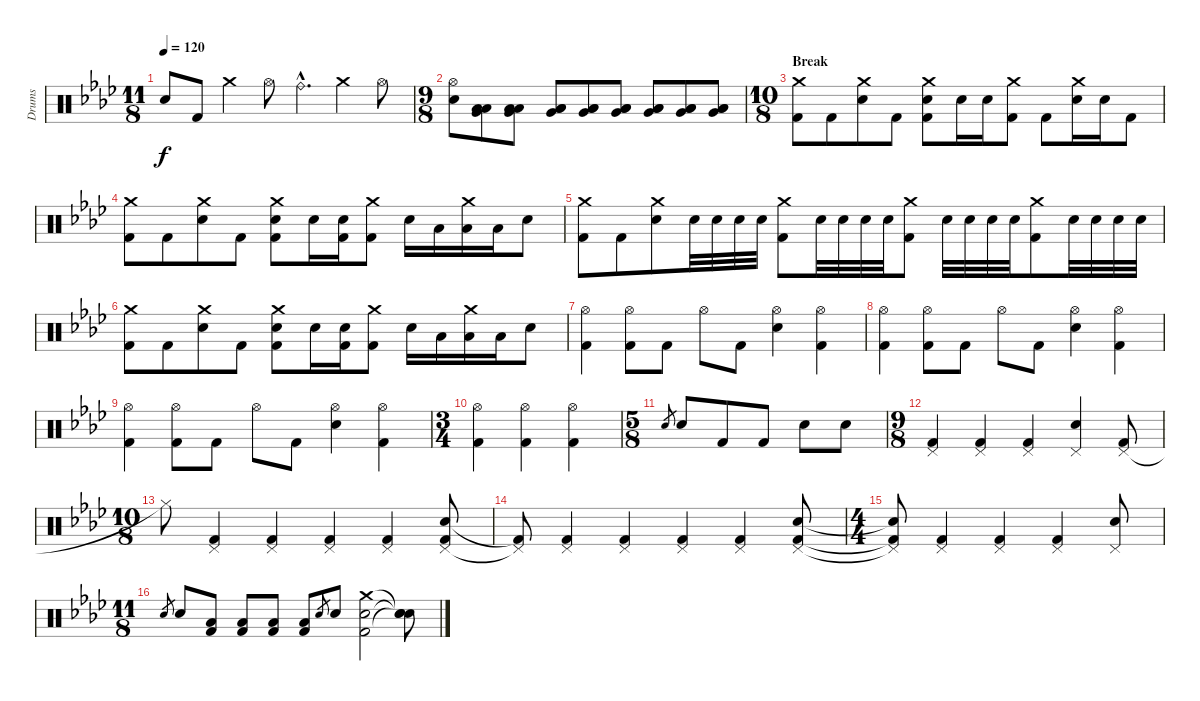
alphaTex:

\track ("Drums" "Drums") {instrument percussion}
\staff {score}
\articulation defaults
\ts (11 8)
\tempo 120
\clef neutral
\ks ab "Electric Snare (hit)".8{dy f} "Kick (hit) 2".8 "Crash medium (hit)".4 "Hi-Hat (open)".8 "Ride (bell)"{hac}.4{d} "Crash medium (hit)".4 "Hi-Hat (open)".8
|
\ts (9 8)
("Hi-Hat (open)" "Electric Snare (hit)").8 ("Low Tom (hit)" "Very Low Tom (hit)" "Low Floor Tom (hit)").8 ("Low Tom (hit)" "Very Low Tom (hit)" "Low Floor Tom (hit)").8 ("Low Tom (hit)" "Very Low Tom (hit)" "Low Floor Tom (hit)").8 ("Low Tom (hit)" "Very Low Tom (hit)" "Low Floor Tom (hit)").8 ("Low Tom (hit)" "Very Low Tom (hit)" "Low Floor Tom (hit)").8 ("Low Tom (hit)" "Very Low Tom (hit)" "Low Floor Tom (hit)").8 ("Low Tom (hit)" "Very Low Tom (hit)" "Low Floor Tom (hit)").8 ("Low Tom (hit)" "Very Low Tom (hit)" "Low Floor Tom (hit)").8 |
\ts (10 8)
\section ("" "Break")
("Crash medium (hit)" "Kick (hit) 2").8 "Kick (hit) 2".8 ("Crash medium (hit)" "Electric Snare (hit)").8 "Kick (hit) 2".8 ("Crash medium (hit)" "Electric Snare (hit)" "Kick (hit) 2").8 "Electric Snare (hit)".16 "Electric Snare (hit)".16 ("Crash medium (hit)" "Kick (hit) 2").8 "Kick (hit) 2".8 ("Crash medium (hit)" "Electric Snare (hit)").16 "Electric Snare (hit)".16 "Kick (hit) 2".8 |
("Crash medium (hit)" "Kick (hit) 2").8 "Kick (hit) 2".8 ("Crash medium (hit)" "Electric Snare (hit)").8 "Kick (hit) 2".8 ("Crash medium (hit)" "Electric Snare (hit)" "Kick (hit) 2").8 "Electric Snare (hit)".16 ("Electric Snare (hit)" "Kick (hit) 2").16 ("Crash medium (hit)" "Kick (hit) 2").8 "Electric Snare (hit)".16 "Low Tom (hit)".16 ("Crash medium (hit)" "Low Tom (hit)").16 "Low Tom (hit)".16 "Electric Snare (hit)".8 |
("Crash medium (hit)" "Kick (hit) 2").8 "Kick (hit) 2".8 ("Crash medium (hit)" "Electric Snare (hit)").8 "Electric Snare (hit)".32 "Electric Snare (hit)".32 "Electric Snare (hit)".32 "Electric Snare (hit)".32 ("Crash medium (hit)" "Kick (hit) 2").8 "Electric Snare (hit)".32 "Electric Snare (hit)".32 "Electric Snare (hit)".32 "Electric Snare (hit)".32 ("Crash medium (hit)" "Kick (hit) 2").8 "Electric Snare (hit)".32 "Electric Snare (hit)".32 "Electric Snare (hit)".32 "Electric Snare (hit)".32 ("Crash medium (hit)" "Kick (hit) 2").8 "Electric Snare (hit)".32 "Electric Snare (hit)".32 "Electric Snare (hit)".32 "Electric Snare (hit)".32 |
("Crash medium (hit)" "Kick (hit) 2").8 "Kick (hit) 2".8 ("Crash medium (hit)" "Electric Snare (hit)").8 "Kick (hit) 2".8 ("Crash medium (hit)" "Electric Snare (hit)" "Kick (hit) 2").8 "Electric Snare (hit)".16 ("Electric Snare (hit)" "Kick (hit) 2").16 ("Crash medium (hit)" "Kick (hit) 2").8 "Electric Snare (hit)".16 "Low Tom (hit)".16 ("Crash medium (hit)" "Low Tom (hit)").16 "Low Tom (hit)".16 "Electric Snare (hit)".8 |
("Hi-Hat (open)" "Kick (hit) 2").4 ("Hi-Hat (open)" "Kick (hit) 2").8 "Kick (hit) 2".8 "Hi-Hat (open)".8 "Kick (hit) 2".8 ("Hi-Hat (open)" "Electric Snare (hit)").4 ("Hi-Hat (open)" "Kick (hit) 2").4 |
("Hi-Hat (open)" "Kick (hit) 2").4 ("Hi-Hat (open)" "Kick (hit) 2").8 "Kick (hit) 2".8 "Hi-Hat (open)".8 "Kick (hit) 2".8 ("Hi-Hat (open)" "Electric Snare (hit)").4 ("Hi-Hat (open)" "Kick (hit) 2").4 |
("Hi-Hat (open)" "Kick (hit) 2").4 ("Hi-Hat (open)" "Kick (hit) 2").8 "Kick (hit) 2".8 "Hi-Hat (open)".8 "Kick (hit) 2".8 ("Hi-Hat (open)" "Electric Snare (hit)").4 ("Hi-Hat (open)" "Kick (hit) 2").4 |
\ts (3 4)
("Hi-Hat (open)" "Kick (hit) 2").4 ("Hi-Hat (open)" "Kick (hit) 2").4 ("Hi-Hat (open)" "Kick (hit) 2").4 |
\ts (5 8)
"Electric Snare (hit)".8{gr} "Electric Snare (hit)".8 "Kick (hit) 2".8 "Kick (hit) 2".8 "Electric Snare (hit)".8 "Electric Snare (hit)".8 |
\ts (9 8)
("Pedal Hi-Hat (hit)" "Kick (hit) 2").4 ("Pedal Hi-Hat (hit)" "Kick (hit) 2").4 ("Pedal Hi-Hat (hit)" "Kick (hit) 2").4 ("Pedal Hi-Hat (hit)" "Electric Snare (hit)").4 ("Pedal Hi-Hat (hit)" "Kick (hit) 2").8 |
\ts (10 8)
"Hi-Hat (closed)"{t}.8 ("Pedal Hi-Hat (hit)" "Kick (hit) 2").4 ("Pedal Hi-Hat (hit)" "Kick (hit) 2").4 ("Pedal Hi-Hat (hit)" "Kick (hit) 2").4 ("Pedal Hi-Hat (hit)" "Kick (hit) 2").4 ("Pedal Hi-Hat (hit)" "Electric Snare (hit)" "Kick (hit) 2").8 |
("Pedal Hi-Hat (hit)"{t} "Kick (hit) 2"{t}).8 ("Pedal Hi-Hat (hit)" "Kick (hit) 2").4 ("Pedal Hi-Hat (hit)" "Kick (hit) 2").4 ("Pedal Hi-Hat (hit)" "Kick (hit) 2").4 ("Pedal Hi-Hat (hit)" "Kick (hit) 2").4 ("Pedal Hi-Hat (hit)" "Electric Snare (hit)" "Kick (hit) 2").8 |
\ts (4 4)
("Pedal Hi-Hat (hit)"{t} "Electric Snare (hit)"{t} "Kick (hit) 2"{t}).8 ("Pedal Hi-Hat (hit)" "Kick (hit) 2").4 ("Pedal Hi-Hat (hit)" "Kick (hit) 2").4 ("Pedal Hi-Hat (hit)" "Kick (hit) 2").4 ("Pedal Hi-Hat (hit)" "Electric Snare (hit)").8 |
\ts (11 8)
"Electric Snare (hit)".8{gr} "Electric Snare (hit)".8 ("Low Tom (hit)" "Kick (hit) 2").8 ("Low Tom (hit)" "Kick (hit) 2").8 ("Low Tom (hit)" "Kick (hit) 2").8 ("Low Tom (hit)" "Kick (hit) 2").8 "Electric Snare (hit)".8{gr} "Electric Snare (hit)".8 ("Crash medium (hit)" "Electric Snare (hit)" "Kick (hit) 2").2 ("Snare (hit)"{t} "Snare (hit)"{t} "Snare (hit)"{t}).8
